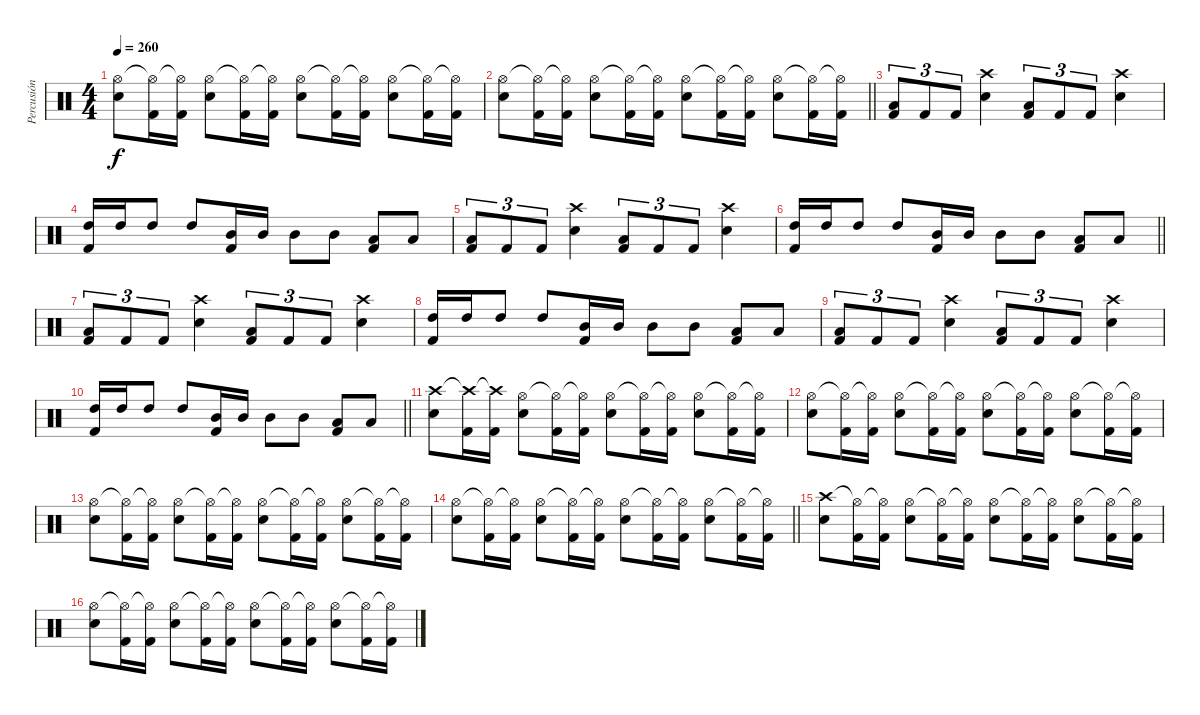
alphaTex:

\track ("Percusión" "Percusión") {instrument percussion}
\staff {score}
\articulation defaults
\ts (4 4)
\tempo 260
\clef neutral
\ks c
("Snare (hit) 2" "Hi-Hat (open)").8{dy f} ("Kick (hit) 2" "Hi-Hat (open)"{t}).16 ("Kick (hit) 2" "Hi-Hat (open)"{t}).16 ("Snare (hit) 2" "Hi-Hat (open)").8 ("Kick (hit) 2" "Hi-Hat (open)"{t}).16 ("Kick (hit) 2" "Hi-Hat (open)"{t}).16 ("Snare (hit) 2" "Hi-Hat (open)").8 ("Kick (hit) 2" "Hi-Hat (open)"{t}).16 ("Kick (hit) 2" "Hi-Hat (open)"{t}).16 ("Snare (hit) 2" "Hi-Hat (open)").8 ("Kick (hit) 2" "Hi-Hat (open)"{t}).16 ("Kick (hit) 2" "Hi-Hat (open)"{t}).16 |
\barLineRight lightlight
("Snare (hit) 2" "Hi-Hat (open)").8 ("Kick (hit) 2" "Hi-Hat (open)"{t}).16 ("Kick (hit) 2" "Hi-Hat (open)"{t}).16 ("Snare (hit) 2" "Hi-Hat (open)").8 ("Kick (hit) 2" "Hi-Hat (open)"{t}).16 ("Kick (hit) 2" "Hi-Hat (open)"{t}).16 ("Snare (hit) 2" "Hi-Hat (open)").8 ("Kick (hit) 2" "Hi-Hat (open)"{t}).16 ("Kick (hit) 2" "Hi-Hat (open)"{t}).16 ("Snare (hit) 2" "Hi-Hat (open)").8 ("Kick (hit) 2" "Hi-Hat (open)"{t}).16 ("Kick (hit) 2" "Hi-Hat (open)"{t}).16 |
("Low Tom (hit)" "Kick (hit) 2").8{tu (3 2)} "Kick (hit) 2".8{tu (3 2)} "Kick (hit) 2".8{tu (3 2)} ("Snare (hit) 2" "Crash high (hit)").4 ("Low Tom (hit)" "Kick (hit) 2").8{tu (3 2)} "Kick (hit) 2".8{tu (3 2)} "Kick (hit) 2".8{tu (3 2)} ("Snare (hit) 2" "Crash high (hit)").4 |
("Kick (hit) 2" "High Tom (hit)").16 "High Tom (hit)".16 "High Tom (hit)".8 "High Tom (hit)".8 ("Kick (hit) 2" "Mid Tom (hit)").16 "Mid Tom (hit)".16 "Mid Tom (hit)".8 "Mid Tom (hit)".8 ("Kick (hit) 2" "Low Tom (hit)").8 "Low Tom (hit)".8 |
("Low Tom (hit)" "Kick (hit) 2").8{tu (3 2)} "Kick (hit) 2".8{tu (3 2)} "Kick (hit) 2".8{tu (3 2)} ("Snare (hit) 2" "Crash high (hit)").4 ("Low Tom (hit)" "Kick (hit) 2").8{tu (3 2)} "Kick (hit) 2".8{tu (3 2)} "Kick (hit) 2".8{tu (3 2)} ("Snare (hit) 2" "Crash high (hit)").4 |
\barLineRight lightlight
("Kick (hit) 2" "High Tom (hit)").16 "High Tom (hit)".16 "High Tom (hit)".8 "High Tom (hit)".8 ("Kick (hit) 2" "Mid Tom (hit)").16 "Mid Tom (hit)".16 "Mid Tom (hit)".8 "Mid Tom (hit)".8 ("Kick (hit) 2" "Low Tom (hit)").8 "Low Tom (hit)".8 |
("Low Tom (hit)" "Kick (hit) 2").8{tu (3 2)} "Kick (hit) 2".8{tu (3 2)} "Kick (hit) 2".8{tu (3 2)} ("Snare (hit) 2" "Crash high (hit)").4 ("Low Tom (hit)" "Kick (hit) 2").8{tu (3 2)} "Kick (hit) 2".8{tu (3 2)} "Kick (hit) 2".8{tu (3 2)} ("Snare (hit) 2" "Crash high (hit)").4 |
("Kick (hit) 2" "High Tom (hit)").16 "High Tom (hit)".16 "High Tom (hit)".8 "High Tom (hit)".8 ("Kick (hit) 2" "Mid Tom (hit)").16 "Mid Tom (hit)".16 "Mid Tom (hit)".8 "Mid Tom (hit)".8 ("Kick (hit) 2" "Low Tom (hit)").8 "Low Tom (hit)".8 |
("Low Tom (hit)" "Kick (hit) 2").8{tu (3 2)} "Kick (hit) 2".8{tu (3 2)} "Kick (hit) 2".8{tu (3 2)} ("Snare (hit) 2" "Crash high (hit)").4 ("Low Tom (hit)" "Kick (hit) 2").8{tu (3 2)} "Kick (hit) 2".8{tu (3 2)} "Kick (hit) 2".8{tu (3 2)} ("Snare (hit) 2" "Crash high (hit)").4 |
\barLineRight lightlight
("Kick (hit) 2" "High Tom (hit)").16 "High Tom (hit)".16 "High Tom (hit)".8 "High Tom (hit)".8 ("Kick (hit) 2" "Mid Tom (hit)").16 "Mid Tom (hit)".16 "Mid Tom (hit)".8 "Mid Tom (hit)".8 ("Kick (hit) 2" "Low Tom (hit)").8 "Low Tom (hit)".8 |
("Snare (hit) 2" "Crash high (hit)").8 ("Kick (hit) 2" "Crash high (hit)"{t}).16 ("Kick (hit) 2" "Crash high (hit)"{t}).16 ("Snare (hit) 2" "Hi-Hat (open)").8 ("Kick (hit) 2" "Hi-Hat (open)"{t}).16 ("Kick (hit) 2" "Hi-Hat (open)"{t}).16 ("Snare (hit) 2" "Hi-Hat (open)").8 ("Kick (hit) 2" "Hi-Hat (open)"{t}).16 ("Kick (hit) 2" "Hi-Hat (open)"{t}).16 ("Snare (hit) 2" "Hi-Hat (open)").8 ("Kick (hit) 2" "Hi-Hat (open)"{t}).16 ("Kick (hit) 2" "Hi-Hat (open)"{t}).16 |
("Snare (hit) 2" "Hi-Hat (open)").8 ("Kick (hit) 2" "Hi-Hat (open)"{t}).16 ("Kick (hit) 2" "Hi-Hat (open)"{t}).16 ("Snare (hit) 2" "Hi-Hat (open)").8 ("Kick (hit) 2" "Hi-Hat (open)"{t}).16 ("Kick (hit) 2" "Hi-Hat (open)"{t}).16 ("Snare (hit) 2" "Hi-Hat (open)").8 ("Kick (hit) 2" "Hi-Hat (open)"{t}).16 ("Kick (hit) 2" "Hi-Hat (open)"{t}).16 ("Snare (hit) 2" "Hi-Hat (open)").8 ("Kick (hit) 2" "Hi-Hat (open)"{t}).16 ("Kick (hit) 2" "Hi-Hat (open)"{t}).16 |
("Snare (hit) 2" "Hi-Hat (open)").8 ("Kick (hit) 2" "Hi-Hat (open)"{t}).16 ("Kick (hit) 2" "Hi-Hat (open)"{t}).16 ("Snare (hit) 2" "Hi-Hat (open)").8 ("Kick (hit) 2" "Hi-Hat (open)"{t}).16 ("Kick (hit) 2" "Hi-Hat (open)"{t}).16 ("Snare (hit) 2" "Hi-Hat (open)").8 ("Kick (hit) 2" "Hi-Hat (open)"{t}).16 ("Kick (hit) 2" "Hi-Hat (open)"{t}).16 ("Snare (hit) 2" "Hi-Hat (open)").8 ("Kick (hit) 2" "Hi-Hat (open)"{t}).16 ("Kick (hit) 2" "Hi-Hat (open)"{t}).16 |
\barLineRight lightlight
("Snare (hit) 2" "Hi-Hat (open)").8 ("Kick (hit) 2" "Hi-Hat (open)"{t}).16 ("Kick (hit) 2" "Hi-Hat (open)"{t}).16 ("Snare (hit) 2" "Hi-Hat (open)").8 ("Kick (hit) 2" "Hi-Hat (open)"{t}).16 ("Kick (hit) 2" "Hi-Hat (open)"{t}).16 ("Snare (hit) 2" "Hi-Hat (open)").8 ("Kick (hit) 2" "Hi-Hat (open)"{t}).16 ("Kick (hit) 2" "Hi-Hat (open)"{t}).16 ("Snare (hit) 2" "Hi-Hat (open)").8 ("Kick (hit) 2" "Hi-Hat (open)"{t}).16 ("Kick (hit) 2" "Hi-Hat (open)"{t}).16 |
("Snare (hit) 2" "Crash high (hit)").8 ("Kick (hit) 2" "Hi-Hat (open)"{t}).16 ("Kick (hit) 2" "Hi-Hat (open)"{t}).16 ("Snare (hit) 2" "Hi-Hat (open)").8 ("Kick (hit) 2" "Hi-Hat (open)"{t}).16 ("Kick (hit) 2" "Hi-Hat (open)"{t}).16 ("Snare (hit) 2" "Hi-Hat (open)").8 ("Kick (hit) 2" "Hi-Hat (open)"{t}).16 ("Kick (hit) 2" "Hi-Hat (open)"{t}).16 ("Snare (hit) 2" "Hi-Hat (open)").8 ("Kick (hit) 2" "Hi-Hat (open)"{t}).16 ("Kick (hit) 2" "Hi-Hat (open)"{t}).16 |
("Snare (hit) 2" "Hi-Hat (open)").8 ("Kick (hit) 2" "Hi-Hat (open)"{t}).16 ("Kick (hit) 2" "Hi-Hat (open)"{t}).16 ("Snare (hit) 2" "Hi-Hat (open)").8 ("Kick (hit) 2" "Hi-Hat (open)"{t}).16 ("Kick (hit) 2" "Hi-Hat (open)"{t}).16 ("Snare (hit) 2" "Hi-Hat (open)").8 ("Kick (hit) 2" "Hi-Hat (open)"{t}).16 ("Kick (hit) 2" "Hi-Hat (open)"{t}).16 ("Snare (hit) 2" "Hi-Hat (open)").8 ("Kick (hit) 2" "Hi-Hat (open)"{t}).16 ("Kick (hit) 2" "Hi-Hat (open)"{t}).16
